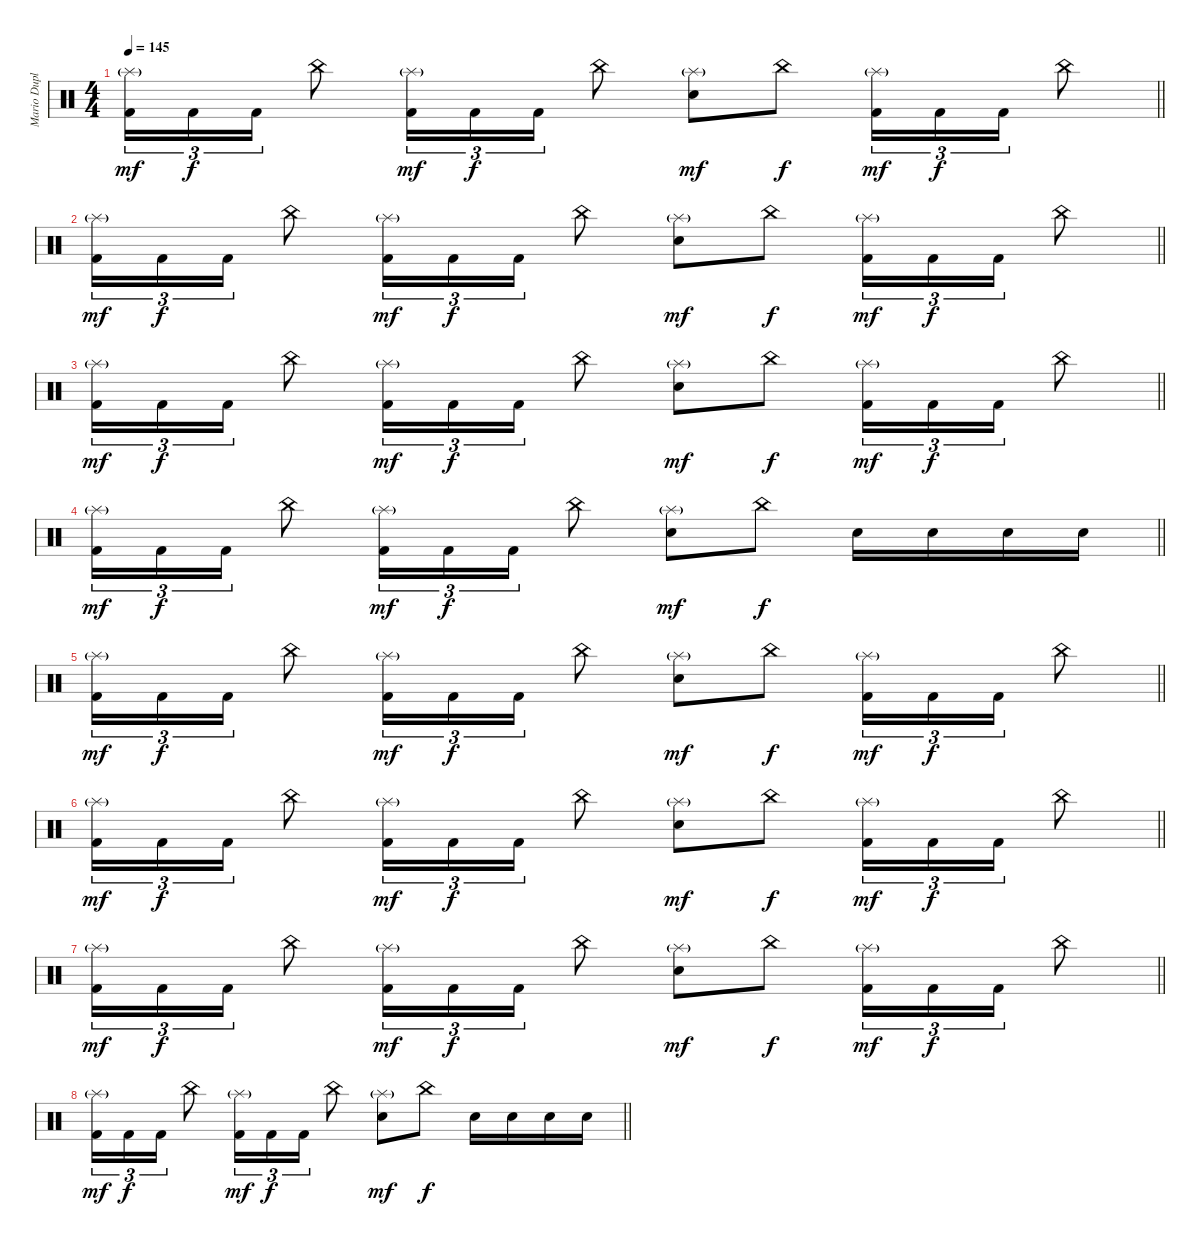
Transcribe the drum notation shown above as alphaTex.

\track ("Mario Duplantier" "Mario Dupl") {instrument percussion}
\staff {score}
\articulation defaults
\ts (4 4)
\tempo 145
\clef neutral
\barLineRight lightlight
\ks c
("Splash (hit)"{g} "Kick (hit) 2").16{tu (3 2) dy mf volume 13} "Kick (hit) 2".16{tu (3 2) dy f} "Kick (hit) 2".16{tu (3 2)} "China (hit)".8 ("Splash (hit)"{g} "Kick (hit) 2").16{tu (3 2) dy mf} "Kick (hit) 2".16{tu (3 2) dy f} "Kick (hit) 2".16{tu (3 2)} "China (hit)".8 ("Splash (hit)"{g} "Electric Snare (hit)").8{dy mf} "China (hit)".8{dy f} ("Splash (hit)"{g} "Kick (hit) 2").16{tu (3 2) dy mf} "Kick (hit) 2".16{tu (3 2) dy f} "Kick (hit) 2".16{tu (3 2)} "China (hit)".8 |
\barLineRight lightlight
("Splash (hit)"{g} "Kick (hit) 2").16{tu (3 2) dy mf} "Kick (hit) 2".16{tu (3 2) dy f} "Kick (hit) 2".16{tu (3 2)} "China (hit)".8 ("Splash (hit)"{g} "Kick (hit) 2").16{tu (3 2) dy mf} "Kick (hit) 2".16{tu (3 2) dy f} "Kick (hit) 2".16{tu (3 2)} "China (hit)".8 ("Splash (hit)"{g} "Electric Snare (hit)").8{dy mf} "China (hit)".8{dy f} ("Splash (hit)"{g} "Kick (hit) 2").16{tu (3 2) dy mf} "Kick (hit) 2".16{tu (3 2) dy f} "Kick (hit) 2".16{tu (3 2)} "China (hit)".8 |
\barLineRight lightlight
("Splash (hit)"{g} "Kick (hit) 2").16{tu (3 2) dy mf} "Kick (hit) 2".16{tu (3 2) dy f} "Kick (hit) 2".16{tu (3 2)} "China (hit)".8 ("Splash (hit)"{g} "Kick (hit) 2").16{tu (3 2) dy mf} "Kick (hit) 2".16{tu (3 2) dy f} "Kick (hit) 2".16{tu (3 2)} "China (hit)".8 ("Splash (hit)"{g} "Electric Snare (hit)").8{dy mf} "China (hit)".8{dy f} ("Splash (hit)"{g} "Kick (hit) 2").16{tu (3 2) dy mf} "Kick (hit) 2".16{tu (3 2) dy f} "Kick (hit) 2".16{tu (3 2)} "China (hit)".8 |
\barLineRight lightlight
("Splash (hit)"{g} "Kick (hit) 2").16{tu (3 2) dy mf} "Kick (hit) 2".16{tu (3 2) dy f} "Kick (hit) 2".16{tu (3 2)} "China (hit)".8 ("Splash (hit)"{g} "Kick (hit) 2").16{tu (3 2) dy mf} "Kick (hit) 2".16{tu (3 2) dy f} "Kick (hit) 2".16{tu (3 2)} "China (hit)".8 ("Splash (hit)"{g} "Electric Snare (hit)").8{dy mf} "China (hit)".8{dy f} "Electric Snare (hit)".16 "Electric Snare (hit)".16 "Electric Snare (hit)".16 "Electric Snare (hit)".16 |
\barLineRight lightlight
("Splash (hit)"{g} "Kick (hit) 2").16{tu (3 2) dy mf} "Kick (hit) 2".16{tu (3 2) dy f} "Kick (hit) 2".16{tu (3 2)} "China (hit)".8 ("Splash (hit)"{g} "Kick (hit) 2").16{tu (3 2) dy mf} "Kick (hit) 2".16{tu (3 2) dy f} "Kick (hit) 2".16{tu (3 2)} "China (hit)".8 ("Splash (hit)"{g} "Electric Snare (hit)").8{dy mf} "China (hit)".8{dy f} ("Splash (hit)"{g} "Kick (hit) 2").16{tu (3 2) dy mf} "Kick (hit) 2".16{tu (3 2) dy f} "Kick (hit) 2".16{tu (3 2)} "China (hit)".8 |
\barLineRight lightlight
("Splash (hit)"{g} "Kick (hit) 2").16{tu (3 2) dy mf} "Kick (hit) 2".16{tu (3 2) dy f} "Kick (hit) 2".16{tu (3 2)} "China (hit)".8 ("Splash (hit)"{g} "Kick (hit) 2").16{tu (3 2) dy mf} "Kick (hit) 2".16{tu (3 2) dy f} "Kick (hit) 2".16{tu (3 2)} "China (hit)".8 ("Splash (hit)"{g} "Electric Snare (hit)").8{dy mf} "China (hit)".8{dy f} ("Splash (hit)"{g} "Kick (hit) 2").16{tu (3 2) dy mf} "Kick (hit) 2".16{tu (3 2) dy f} "Kick (hit) 2".16{tu (3 2)} "China (hit)".8 |
\barLineRight lightlight
("Splash (hit)"{g} "Kick (hit) 2").16{tu (3 2) dy mf} "Kick (hit) 2".16{tu (3 2) dy f} "Kick (hit) 2".16{tu (3 2)} "China (hit)".8 ("Splash (hit)"{g} "Kick (hit) 2").16{tu (3 2) dy mf} "Kick (hit) 2".16{tu (3 2) dy f} "Kick (hit) 2".16{tu (3 2)} "China (hit)".8 ("Splash (hit)"{g} "Electric Snare (hit)").8{dy mf} "China (hit)".8{dy f} ("Splash (hit)"{g} "Kick (hit) 2").16{tu (3 2) dy mf} "Kick (hit) 2".16{tu (3 2) dy f} "Kick (hit) 2".16{tu (3 2)} "China (hit)".8 |
\barLineRight lightlight
("Splash (hit)"{g} "Kick (hit) 2").16{tu (3 2) dy mf} "Kick (hit) 2".16{tu (3 2) dy f} "Kick (hit) 2".16{tu (3 2)} "China (hit)".8 ("Splash (hit)"{g} "Kick (hit) 2").16{tu (3 2) dy mf} "Kick (hit) 2".16{tu (3 2) dy f} "Kick (hit) 2".16{tu (3 2)} "China (hit)".8 ("Splash (hit)"{g} "Electric Snare (hit)").8{dy mf} "China (hit)".8{dy f} "Electric Snare (hit)".16 "Electric Snare (hit)".16 "Electric Snare (hit)".16 "Electric Snare (hit)".16
